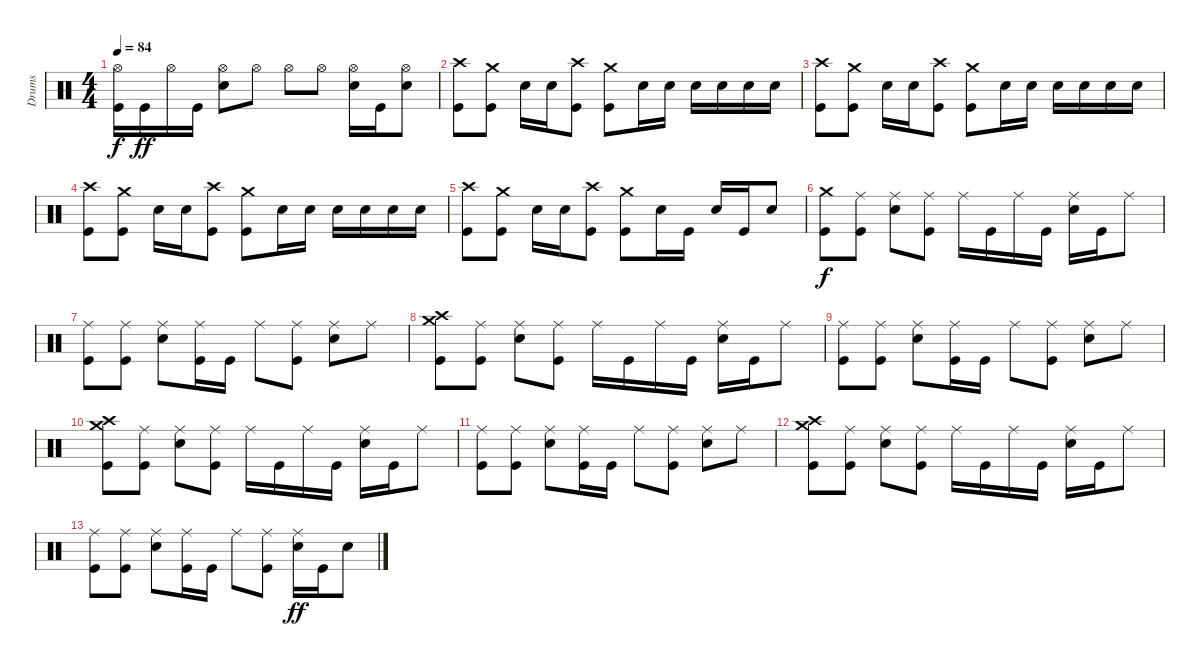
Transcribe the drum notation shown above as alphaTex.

\track ("Drums" "Drums") {instrument percussion}
\staff {score}
\articulation defaults
\ts (4 4)
\tempo 84
\clef neutral
\ks c
("Kick (hit)" "Hi-Hat (open)").16{dy f} "Kick (hit)".16{dy ff} "Hi-Hat (open)".16 "Kick (hit)".16 ("Snare (hit) 2" "Hi-Hat (open)").8 "Hi-Hat (open)".8 "Hi-Hat (open)".8 "Hi-Hat (open)".8 ("Snare (hit) 2" "Hi-Hat (open)").16 "Kick (hit)".16 ("Snare (hit) 2" "Hi-Hat (open)").8 |
("Crash high (hit)" "Kick (hit)").8 ("Crash medium (hit)" "Kick (hit)").8 "Snare (hit) 2".16 "Snare (hit) 2".16 ("Crash high (hit)" "Kick (hit)").8 ("Crash medium (hit)" "Kick (hit)").8 "Snare (hit) 2".16 "Snare (hit) 2".16 "Snare (hit) 2".16 "Snare (hit) 2".16 "Snare (hit) 2".16 "Snare (hit) 2".16 |
("Crash high (hit)" "Kick (hit)").8 ("Crash medium (hit)" "Kick (hit)").8 "Snare (hit) 2".16 "Snare (hit) 2".16 ("Crash high (hit)" "Kick (hit)").8 ("Crash medium (hit)" "Kick (hit)").8 "Snare (hit) 2".16 "Snare (hit) 2".16 "Snare (hit) 2".16 "Snare (hit) 2".16 "Snare (hit) 2".16 "Snare (hit) 2".16 |
("Crash high (hit)" "Kick (hit)").8 ("Crash medium (hit)" "Kick (hit)").8 "Snare (hit) 2".16 "Snare (hit) 2".16 ("Crash high (hit)" "Kick (hit)").8 ("Crash medium (hit)" "Kick (hit)").8 "Snare (hit) 2".16 "Snare (hit) 2".16 "Snare (hit) 2".16 "Snare (hit) 2".16 "Snare (hit) 2".16 "Snare (hit) 2".16 |
("Crash high (hit)" "Kick (hit)").8 ("Crash medium (hit)" "Kick (hit)").8 "Snare (hit) 2".16 "Snare (hit) 2".16 ("Crash high (hit)" "Kick (hit)").8 ("Crash medium (hit)" "Kick (hit)").8 "Snare (hit) 2".16 "Kick (hit)".16 "Snare (hit) 2".16 "Kick (hit)".16 "Snare (hit) 2".8 |
("Crash medium (hit)" "Kick (hit)").8{dy f} ("Ride (middle)" "Kick (hit)").8 ("Ride (middle)" "Snare (hit) 2").8 ("Ride (middle)" "Kick (hit)").8 "Ride (middle)".16 "Kick (hit)".16 "Ride (middle)".16 "Kick (hit)".16 ("Ride (middle)" "Snare (hit) 2").16 "Kick (hit)".16 "Ride (middle)".8 |
("Ride (middle)" "Kick (hit)").8 ("Ride (middle)" "Kick (hit)").8 ("Ride (middle)" "Snare (hit) 2").8 ("Ride (middle)" "Kick (hit)").16 "Kick (hit)".16 "Ride (middle)".8 ("Ride (middle)" "Kick (hit)").8 ("Ride (middle)" "Snare (hit) 2").8 "Ride (middle)".8 |
("Crash medium (hit)" "Crash high (hit)" "Kick (hit)").8 ("Ride (middle)" "Kick (hit)").8 ("Ride (middle)" "Snare (hit) 2").8 ("Ride (middle)" "Kick (hit)").8 "Ride (middle)".16 "Kick (hit)".16 "Ride (middle)".16 "Kick (hit)".16 ("Ride (middle)" "Snare (hit) 2").16 "Kick (hit)".16 "Ride (middle)".8 |
("Ride (middle)" "Kick (hit)").8 ("Ride (middle)" "Kick (hit)").8 ("Ride (middle)" "Snare (hit) 2").8 ("Ride (middle)" "Kick (hit)").16 "Kick (hit)".16 "Ride (middle)".8 ("Ride (middle)" "Kick (hit)").8 ("Ride (middle)" "Snare (hit) 2").8 "Ride (middle)".8 |
("Crash medium (hit)" "Crash high (hit)" "Kick (hit)").8 ("Ride (middle)" "Kick (hit)").8 ("Ride (middle)" "Snare (hit) 2").8 ("Ride (middle)" "Kick (hit)").8 "Ride (middle)".16 "Kick (hit)".16 "Ride (middle)".16 "Kick (hit)".16 ("Ride (middle)" "Snare (hit) 2").16 "Kick (hit)".16 "Ride (middle)".8 |
("Ride (middle)" "Kick (hit)").8 ("Ride (middle)" "Kick (hit)").8 ("Ride (middle)" "Snare (hit) 2").8 ("Ride (middle)" "Kick (hit)").16 "Kick (hit)".16 "Ride (middle)".8 ("Ride (middle)" "Kick (hit)").8 ("Ride (middle)" "Snare (hit) 2").8 "Ride (middle)".8 |
("Crash medium (hit)" "Crash high (hit)" "Kick (hit)").8 ("Ride (middle)" "Kick (hit)").8 ("Ride (middle)" "Snare (hit) 2").8 ("Ride (middle)" "Kick (hit)").8 "Ride (middle)".16 "Kick (hit)".16 "Ride (middle)".16 "Kick (hit)".16 ("Ride (middle)" "Snare (hit) 2").16 "Kick (hit)".16 "Ride (middle)".8 |
("Ride (middle)" "Kick (hit)").8 ("Ride (middle)" "Kick (hit)").8 ("Ride (middle)" "Snare (hit) 2").8 ("Ride (middle)" "Kick (hit)").16 "Kick (hit)".16 "Ride (middle)".8 ("Ride (middle)" "Kick (hit)").8 ("Ride (middle)" "Snare (hit) 2").16{dy ff} "Kick (hit)".16 "Snare (hit) 2".8
